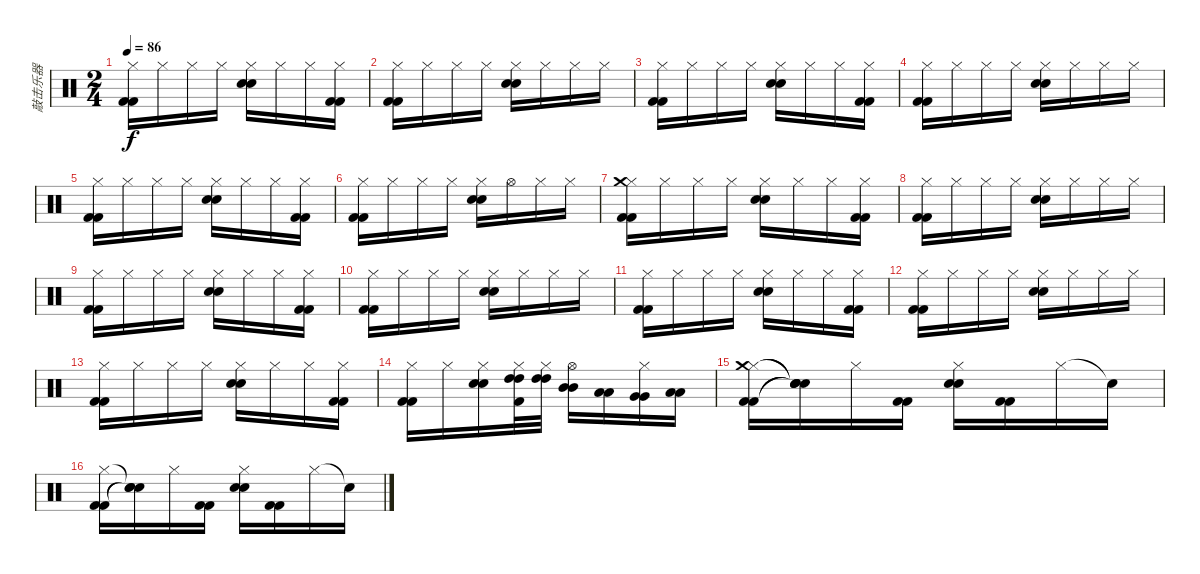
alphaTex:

\track ("敲击乐器" "敲击乐器") {instrument percussion}
\staff {score}
\articulation defaults
\ts (2 4)
\tempo 86
\clef neutral
\ks c
("Hi-Hat (closed)" "Kick (hit) 2" "Kick (hit) 2").16{dy f} "Hi-Hat (closed)".16 "Hi-Hat (closed)".16 "Hi-Hat (closed)".16 ("Hi-Hat (closed)" "Electric Snare (hit)" "Electric Snare (hit)").16 "Hi-Hat (closed)".16 "Hi-Hat (closed)".16 ("Hi-Hat (closed)" "Kick (hit) 2" "Kick (hit) 2").16 |
("Hi-Hat (closed)" "Kick (hit) 2" "Kick (hit) 2").16 "Hi-Hat (closed)".16 "Hi-Hat (closed)".16 "Hi-Hat (closed)".16 ("Hi-Hat (closed)" "Electric Snare (hit)" "Electric Snare (hit)").16 "Hi-Hat (closed)".16 "Hi-Hat (closed)".16 "Hi-Hat (closed)".16 |
("Hi-Hat (closed)" "Kick (hit) 2" "Kick (hit) 2").16 "Hi-Hat (closed)".16 "Hi-Hat (closed)".16 "Hi-Hat (closed)".16 ("Hi-Hat (closed)" "Electric Snare (hit)" "Electric Snare (hit)").16 "Hi-Hat (closed)".16 "Hi-Hat (closed)".16 ("Hi-Hat (closed)" "Kick (hit) 2" "Kick (hit) 2").16 |
("Hi-Hat (closed)" "Kick (hit) 2" "Kick (hit) 2").16 "Hi-Hat (closed)".16 "Hi-Hat (closed)".16 "Hi-Hat (closed)".16 ("Hi-Hat (closed)" "Electric Snare (hit)" "Electric Snare (hit)").16 "Hi-Hat (closed)".16 "Hi-Hat (closed)".16 "Hi-Hat (closed)".16 |
("Hi-Hat (closed)" "Kick (hit) 2" "Kick (hit) 2").16 "Hi-Hat (closed)".16 "Hi-Hat (closed)".16 "Hi-Hat (closed)".16 ("Hi-Hat (closed)" "Electric Snare (hit)" "Electric Snare (hit)").16 "Hi-Hat (closed)".16 "Hi-Hat (closed)".16 ("Hi-Hat (closed)" "Kick (hit) 2" "Kick (hit) 2").16 |
("Hi-Hat (closed)" "Kick (hit) 2" "Kick (hit) 2").16 "Hi-Hat (closed)".16 "Hi-Hat (closed)".16 "Hi-Hat (closed)".16 ("Hi-Hat (closed)" "Electric Snare (hit)" "Electric Snare (hit)").16 "Hi-Hat (open)".16 "Hi-Hat (closed)".16 "Hi-Hat (closed)".16 |
("Hi-Hat (closed)" "Crash medium (hit)" "Kick (hit) 2" "Kick (hit) 2").16 "Hi-Hat (closed)".16 "Hi-Hat (closed)".16 "Hi-Hat (closed)".16 ("Hi-Hat (closed)" "Electric Snare (hit)" "Electric Snare (hit)").16 "Hi-Hat (closed)".16 "Hi-Hat (closed)".16 ("Hi-Hat (closed)" "Kick (hit) 2" "Kick (hit) 2").16 |
("Hi-Hat (closed)" "Kick (hit) 2" "Kick (hit) 2").16 "Hi-Hat (closed)".16 "Hi-Hat (closed)".16 "Hi-Hat (closed)".16 ("Hi-Hat (closed)" "Electric Snare (hit)" "Electric Snare (hit)").16 "Hi-Hat (closed)".16 "Hi-Hat (closed)".16 "Hi-Hat (closed)".16 |
("Hi-Hat (closed)" "Kick (hit) 2" "Kick (hit) 2").16 "Hi-Hat (closed)".16 "Hi-Hat (closed)".16 "Hi-Hat (closed)".16 ("Hi-Hat (closed)" "Electric Snare (hit)" "Electric Snare (hit)").16 "Hi-Hat (closed)".16 "Hi-Hat (closed)".16 ("Hi-Hat (closed)" "Kick (hit) 2" "Kick (hit) 2").16 |
("Hi-Hat (closed)" "Kick (hit) 2" "Kick (hit) 2").16 "Hi-Hat (closed)".16 "Hi-Hat (closed)".16 "Hi-Hat (closed)".16 ("Hi-Hat (closed)" "Electric Snare (hit)" "Electric Snare (hit)").16 "Hi-Hat (closed)".16 "Hi-Hat (closed)".16 "Hi-Hat (closed)".16 |
("Hi-Hat (closed)" "Kick (hit) 2" "Kick (hit) 2").16 "Hi-Hat (closed)".16 "Hi-Hat (closed)".16 "Hi-Hat (closed)".16 ("Hi-Hat (closed)" "Electric Snare (hit)" "Electric Snare (hit)").16 "Hi-Hat (closed)".16 "Hi-Hat (closed)".16 ("Hi-Hat (closed)" "Kick (hit) 2" "Kick (hit) 2").16 |
("Hi-Hat (closed)" "Kick (hit) 2" "Kick (hit) 2").16 "Hi-Hat (closed)".16 "Hi-Hat (closed)".16 "Hi-Hat (closed)".16 ("Hi-Hat (closed)" "Electric Snare (hit)" "Electric Snare (hit)").16 "Hi-Hat (closed)".16 "Hi-Hat (closed)".16 "Hi-Hat (closed)".16 |
("Hi-Hat (closed)" "Kick (hit) 2" "Kick (hit) 2").16 "Hi-Hat (closed)".16 "Hi-Hat (closed)".16 "Hi-Hat (closed)".16 ("Hi-Hat (closed)" "Electric Snare (hit)" "Electric Snare (hit)").16 "Hi-Hat (closed)".16 "Hi-Hat (closed)".16 ("Hi-Hat (closed)" "Kick (hit) 2" "Kick (hit) 2").16 |
("Hi-Hat (closed)" "Kick (hit) 2" "Kick (hit) 2").16 "Hi-Hat (closed)".16 ("Hi-Hat (closed)" "Electric Snare (hit)" "Electric Snare (hit)").16 ("Hi-Hat (closed)" "High Tom (hit)" "High Tom (hit)" "Kick (hit) 2").32 ("Hi-Hat (closed)" "High Tom (hit)" "High Tom (hit)").32 ("Hi-Hat (open)" "Mid Tom (hit)" "Mid Tom (hit)").16 ("Low Tom (hit)" "Low Tom (hit)").16 ("Hi-Hat (closed)" "Very Low Tom (hit)" "Very Low Tom (hit)").16 ("Low Floor Tom (hit)" "Low Floor Tom (hit)").16 |
("Hi-Hat (closed)" "Crash medium (hit)" "Kick (hit) 2" "Kick (hit) 2").16 ("Snare (hit)"{t} "Snare (hit)"{t} "Snare (hit)"{t} "Snare (hit)"{t}).16 "Hi-Hat (closed)".16 ("Kick (hit) 2" "Kick (hit) 2").16 ("Hi-Hat (closed)" "Electric Snare (hit)" "Electric Snare (hit)").16 ("Kick (hit) 2" "Kick (hit) 2").16 "Hi-Hat (closed)".16 "Snare (hit)"{t}.16 |
("Hi-Hat (closed)" "Kick (hit) 2" "Kick (hit) 2").16 ("Snare (hit)"{t} "Snare (hit)"{t} "Snare (hit)"{t}).16 "Hi-Hat (closed)".16 ("Kick (hit) 2" "Kick (hit) 2").16 ("Hi-Hat (closed)" "Electric Snare (hit)" "Electric Snare (hit)").16 ("Kick (hit) 2" "Kick (hit) 2").16 "Hi-Hat (closed)".16 "Snare (hit)"{t}.16
